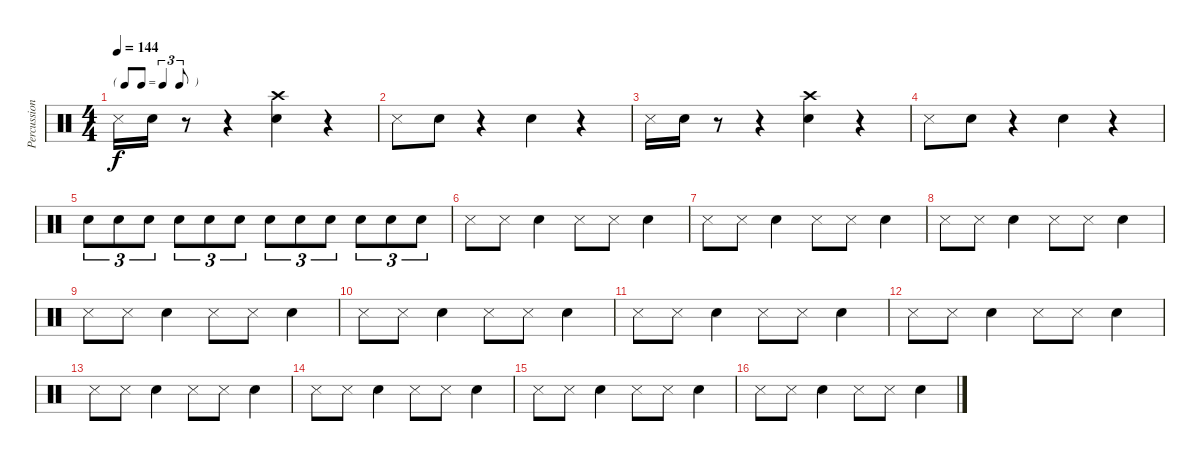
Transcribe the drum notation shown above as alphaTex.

\track ("Percussions" "Percussion") {instrument percussion}
\staff {score}
\articulation defaults
\ts (4 4)
\tf triplet8th
\tempo 144
\clef neutral
\ks c "Snare (side stick) 3".16{dy f} "Snare (hit) 2".16
r.8 r.4 ("Snare (hit) 2" "Crash high (hit)").4 r.4 |
"Snare (side stick) 3".8 "Snare (hit) 2".8 r.4 "Snare (hit) 2".4 r.4 |
"Snare (side stick) 3".16 "Snare (hit) 2".16 r.8 r.4 ("Snare (hit) 2" "Crash high (hit)").4 r.4 |
"Snare (side stick) 3".8 "Snare (hit) 2".8 r.4 "Snare (hit) 2".4 r.4 |
"Snare (hit) 2".8{tu (3 2)} "Snare (hit) 2".8{tu (3 2)} "Snare (hit) 2".8{tu (3 2)} "Snare (hit) 2".8{tu (3 2)} "Snare (hit) 2".8{tu (3 2)} "Snare (hit) 2".8{tu (3 2)} "Snare (hit) 2".8{tu (3 2)} "Snare (hit) 2".8{tu (3 2)} "Snare (hit) 2".8{tu (3 2)} "Snare (hit) 2".8{tu (3 2)} "Snare (hit) 2".8{tu (3 2)} "Snare (hit) 2".8{tu (3 2)} |
"Snare (side stick) 3".8 "Snare (side stick) 3".8 "Snare (hit) 2".4 "Snare (side stick) 3".8 "Snare (side stick) 3".8 "Snare (hit) 2".4 |
"Snare (side stick) 3".8 "Snare (side stick) 3".8 "Snare (hit) 2".4 "Snare (side stick) 3".8 "Snare (side stick) 3".8 "Snare (hit) 2".4 |
"Snare (side stick) 3".8 "Snare (side stick) 3".8 "Snare (hit) 2".4 "Snare (side stick) 3".8 "Snare (side stick) 3".8 "Snare (hit) 2".4 |
"Snare (side stick) 3".8 "Snare (side stick) 3".8 "Snare (hit) 2".4 "Snare (side stick) 3".8 "Snare (side stick) 3".8 "Snare (hit) 2".4 |
"Snare (side stick) 3".8 "Snare (side stick) 3".8 "Snare (hit) 2".4 "Snare (side stick) 3".8 "Snare (side stick) 3".8 "Snare (hit) 2".4 |
"Snare (side stick) 3".8 "Snare (side stick) 3".8 "Snare (hit) 2".4 "Snare (side stick) 3".8 "Snare (side stick) 3".8 "Snare (hit) 2".4 |
"Snare (side stick) 3".8 "Snare (side stick) 3".8 "Snare (hit) 2".4 "Snare (side stick) 3".8 "Snare (side stick) 3".8 "Snare (hit) 2".4 |
"Snare (side stick) 3".8 "Snare (side stick) 3".8 "Snare (hit) 2".4 "Snare (side stick) 3".8 "Snare (side stick) 3".8 "Snare (hit) 2".4 |
"Snare (side stick) 3".8 "Snare (side stick) 3".8 "Snare (hit) 2".4 "Snare (side stick) 3".8 "Snare (side stick) 3".8 "Snare (hit) 2".4 |
"Snare (side stick) 3".8 "Snare (side stick) 3".8 "Snare (hit) 2".4 "Snare (side stick) 3".8 "Snare (side stick) 3".8 "Snare (hit) 2".4 |
"Snare (side stick) 3".8 "Snare (side stick) 3".8 "Snare (hit) 2".4 "Snare (side stick) 3".8 "Snare (side stick) 3".8 "Snare (hit) 2".4
